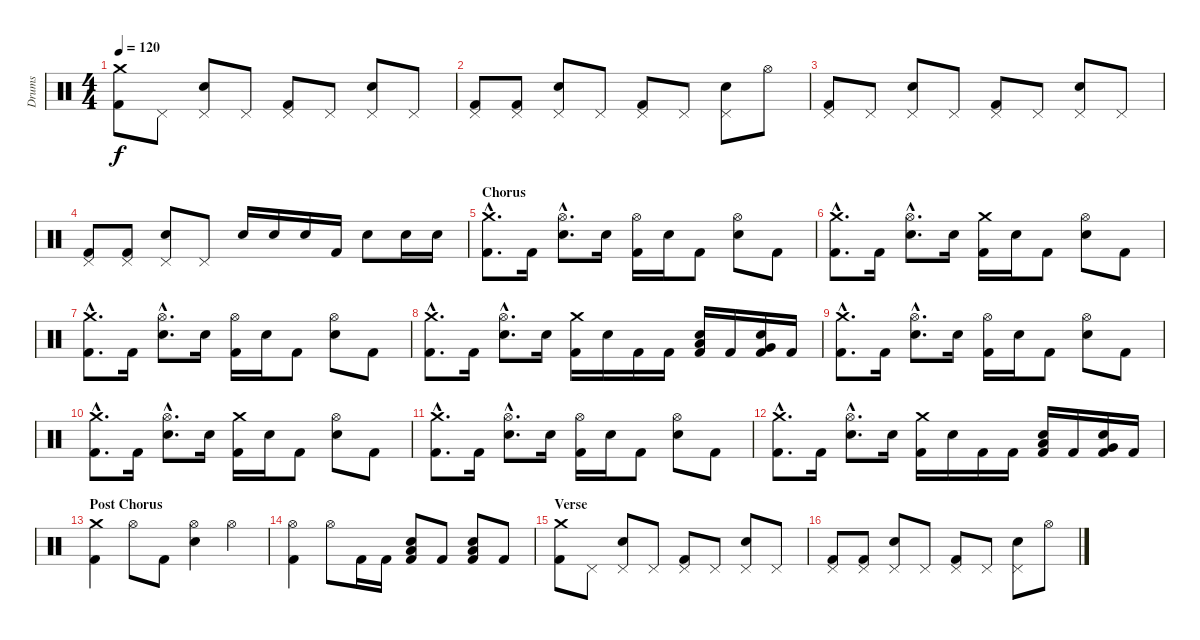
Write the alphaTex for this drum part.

\track ("Drums" "Drums") {instrument percussion}
\staff {score}
\articulation defaults
\ts (4 4)
\tempo 120
\clef neutral
\ks c
("Crash medium (hit)" "Kick (hit) 2").8{dy f} "Pedal Hi-Hat (hit)".8 ("Pedal Hi-Hat (hit)" "Electric Snare (hit)").8 "Pedal Hi-Hat (hit)".8 ("Pedal Hi-Hat (hit)" "Kick (hit) 2").8 "Pedal Hi-Hat (hit)".8 ("Pedal Hi-Hat (hit)" "Electric Snare (hit)").8 "Pedal Hi-Hat (hit)".8 |
("Pedal Hi-Hat (hit)" "Kick (hit) 2").8 ("Pedal Hi-Hat (hit)" "Kick (hit) 2").8 ("Pedal Hi-Hat (hit)" "Electric Snare (hit)").8 "Pedal Hi-Hat (hit)".8 ("Pedal Hi-Hat (hit)" "Kick (hit) 2").8 "Pedal Hi-Hat (hit)".8 ("Pedal Hi-Hat (hit)" "Electric Snare (hit)").8 "Hi-Hat (open)".8 |
("Pedal Hi-Hat (hit)" "Kick (hit) 2").8 "Pedal Hi-Hat (hit)".8 ("Pedal Hi-Hat (hit)" "Electric Snare (hit)").8 "Pedal Hi-Hat (hit)".8 ("Pedal Hi-Hat (hit)" "Kick (hit) 2").8 "Pedal Hi-Hat (hit)".8 ("Pedal Hi-Hat (hit)" "Electric Snare (hit)").8 "Pedal Hi-Hat (hit)".8 |
("Pedal Hi-Hat (hit)" "Kick (hit) 2").8 ("Pedal Hi-Hat (hit)" "Kick (hit) 2").8 ("Pedal Hi-Hat (hit)" "Electric Snare (hit)").8 "Pedal Hi-Hat (hit)".8 "Electric Snare (hit)".16 "Electric Snare (hit)".16 "Electric Snare (hit)".16 "Kick (hit) 2".16 "Electric Snare (hit)".8 "Electric Snare (hit)".16 "Electric Snare (hit)".16 |
\section ("" "Chorus")
("Crash medium (hit)"{hac} "Kick (hit) 2"{hac}).8{d} "Kick (hit) 2".16 ("Hi-Hat (open)"{hac} "Electric Snare (hit)"{hac}).8{d} "Electric Snare (hit)".16 ("Hi-Hat (open)" "Kick (hit) 2").16 "Electric Snare (hit)".16 "Kick (hit) 2".8 ("Hi-Hat (open)" "Electric Snare (hit)").8 "Kick (hit) 2".8 |
("Crash medium (hit)"{hac} "Kick (hit) 2"{hac}).8{d} "Kick (hit) 2".16 ("Hi-Hat (open)"{hac} "Electric Snare (hit)"{hac}).8{d} "Electric Snare (hit)".16 ("Crash medium (hit)" "Kick (hit) 2").16 "Electric Snare (hit)".16 "Kick (hit) 2".8 ("Hi-Hat (open)" "Electric Snare (hit)").8 "Kick (hit) 2".8 |
("Crash medium (hit)"{hac} "Kick (hit) 2"{hac}).8{d} "Kick (hit) 2".16 ("Hi-Hat (open)"{hac} "Electric Snare (hit)"{hac}).8{d} "Electric Snare (hit)".16 ("Hi-Hat (open)" "Kick (hit) 2").16 "Electric Snare (hit)".16 "Kick (hit) 2".8 ("Hi-Hat (open)" "Electric Snare (hit)").8 "Kick (hit) 2".8 |
("Crash medium (hit)"{hac} "Kick (hit) 2"{hac}).8{d} "Kick (hit) 2".16 ("Hi-Hat (open)"{hac} "Electric Snare (hit)"{hac}).8{d} "Electric Snare (hit)".16 ("Crash medium (hit)" "Kick (hit) 2").16 "Electric Snare (hit)".16 "Kick (hit) 2".16 "Kick (hit) 2".16 ("Electric Snare (hit)" "Low Tom (hit)" "Kick (hit) 2").16 "Kick (hit) 2".16 ("Electric Snare (hit)" "Very Low Tom (hit)" "Kick (hit) 2").16 "Kick (hit) 2".16 |
("Crash medium (hit)"{hac} "Kick (hit) 2"{hac}).8{d} "Kick (hit) 2".16 ("Hi-Hat (open)"{hac} "Electric Snare (hit)"{hac}).8{d} "Electric Snare (hit)".16 ("Hi-Hat (open)" "Kick (hit) 2").16 "Electric Snare (hit)".16 "Kick (hit) 2".8 ("Hi-Hat (open)" "Electric Snare (hit)").8 "Kick (hit) 2".8 |
("Crash medium (hit)"{hac} "Kick (hit) 2"{hac}).8{d} "Kick (hit) 2".16 ("Hi-Hat (open)"{hac} "Electric Snare (hit)"{hac}).8{d} "Electric Snare (hit)".16 ("Crash medium (hit)" "Kick (hit) 2").16 "Electric Snare (hit)".16 "Kick (hit) 2".8 ("Hi-Hat (open)" "Electric Snare (hit)").8 "Kick (hit) 2".8 |
("Crash medium (hit)"{hac} "Kick (hit) 2"{hac}).8{d} "Kick (hit) 2".16 ("Hi-Hat (open)"{hac} "Electric Snare (hit)"{hac}).8{d} "Electric Snare (hit)".16 ("Hi-Hat (open)" "Kick (hit) 2").16 "Electric Snare (hit)".16 "Kick (hit) 2".8 ("Hi-Hat (open)" "Electric Snare (hit)").8 "Kick (hit) 2".8 |
("Crash medium (hit)"{hac} "Kick (hit) 2"{hac}).8{d} "Kick (hit) 2".16 ("Hi-Hat (open)"{hac} "Electric Snare (hit)"{hac}).8{d} "Electric Snare (hit)".16 ("Crash medium (hit)" "Kick (hit) 2").16 "Electric Snare (hit)".16 "Kick (hit) 2".16 "Kick (hit) 2".16 ("Electric Snare (hit)" "Low Tom (hit)" "Kick (hit) 2").16 "Kick (hit) 2".16 ("Electric Snare (hit)" "Very Low Tom (hit)" "Kick (hit) 2").16 "Kick (hit) 2".16 |
\section ("" "Post Chorus")
("Crash medium (hit)" "Kick (hit) 2").4 "Hi-Hat (open)".8 "Kick (hit) 2".8 ("Hi-Hat (open)" "Electric Snare (hit)").4 "Hi-Hat (open)".4 |
("Hi-Hat (open)" "Kick (hit) 2").4 "Hi-Hat (open)".8 "Kick (hit) 2".16 "Kick (hit) 2".16 ("Electric Snare (hit)" "Low Tom (hit)" "Kick (hit) 2").8 "Kick (hit) 2".8 ("Electric Snare (hit)" "Low Floor Tom (hit)" "Kick (hit) 2").8 "Kick (hit) 2".8 |
\section ("" "Verse")
("Crash medium (hit)" "Kick (hit) 2").8 "Pedal Hi-Hat (hit)".8 ("Pedal Hi-Hat (hit)" "Electric Snare (hit)").8 "Pedal Hi-Hat (hit)".8 ("Pedal Hi-Hat (hit)" "Kick (hit) 2").8 "Pedal Hi-Hat (hit)".8 ("Pedal Hi-Hat (hit)" "Electric Snare (hit)").8 "Pedal Hi-Hat (hit)".8 |
("Pedal Hi-Hat (hit)" "Kick (hit) 2").8 ("Pedal Hi-Hat (hit)" "Kick (hit) 2").8 ("Pedal Hi-Hat (hit)" "Electric Snare (hit)").8 "Pedal Hi-Hat (hit)".8 ("Pedal Hi-Hat (hit)" "Kick (hit) 2").8 "Pedal Hi-Hat (hit)".8 ("Pedal Hi-Hat (hit)" "Electric Snare (hit)").8 "Hi-Hat (open)".8
